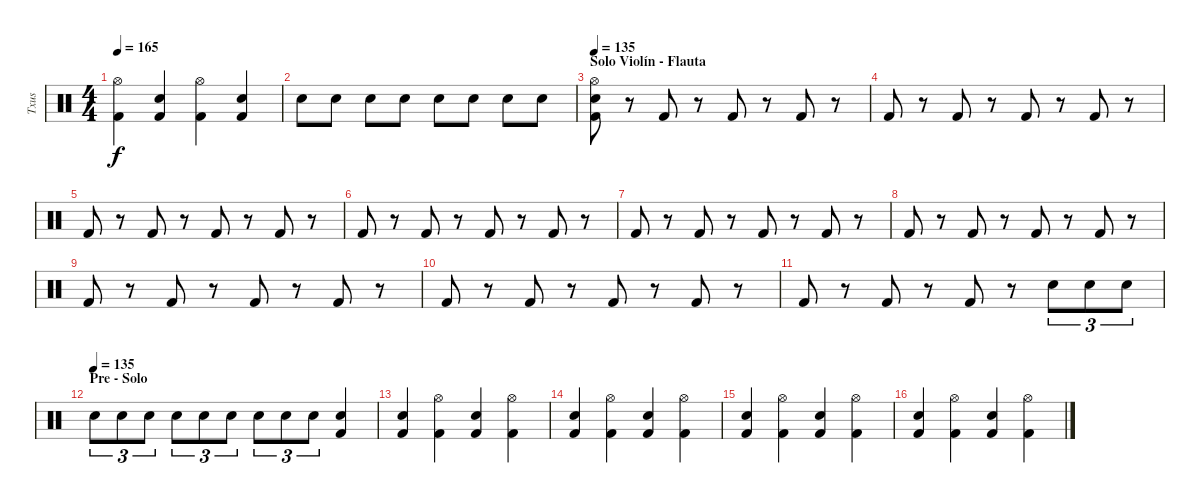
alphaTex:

\track ("Txus" "Txus") {instrument percussion}
\staff {score}
\articulation defaults
\ts (4 4)
\tempo 165
\clef neutral
\ks c
("Hi-Hat (open)" "Kick (hit) 2").4{dy f} ("Snare (hit) 2" "Kick (hit) 2").4 ("Hi-Hat (open)" "Kick (hit) 2").4 ("Snare (hit) 2" "Kick (hit) 2").4 |
"Snare (hit) 2".8 "Snare (hit) 2".8 "Snare (hit) 2".8 "Snare (hit) 2".8 "Snare (hit) 2".8 "Snare (hit) 2".8 "Snare (hit) 2".8 "Snare (hit) 2".8 |
\section ("" "Solo Violín - Flauta")
\tempo 135
("Snare (hit) 2" "Hi-Hat (open)" "Kick (hit) 2").8 r.8 "Kick (hit) 2".8 r.8 "Kick (hit) 2".8 r.8 "Kick (hit) 2".8 r.8 |
"Kick (hit) 2".8 r.8 "Kick (hit) 2".8 r.8 "Kick (hit) 2".8 r.8 "Kick (hit) 2".8 r.8 |
"Kick (hit) 2".8 r.8 "Kick (hit) 2".8 r.8 "Kick (hit) 2".8 r.8 "Kick (hit) 2".8 r.8 |
"Kick (hit) 2".8 r.8 "Kick (hit) 2".8 r.8 "Kick (hit) 2".8 r.8 "Kick (hit) 2".8 r.8 |
"Kick (hit) 2".8 r.8 "Kick (hit) 2".8 r.8 "Kick (hit) 2".8 r.8 "Kick (hit) 2".8 r.8 |
"Kick (hit) 2".8 r.8 "Kick (hit) 2".8 r.8 "Kick (hit) 2".8 r.8 "Kick (hit) 2".8 r.8 |
"Kick (hit) 2".8 r.8 "Kick (hit) 2".8 r.8 "Kick (hit) 2".8 r.8 "Kick (hit) 2".8 r.8 |
"Kick (hit) 2".8 r.8 "Kick (hit) 2".8 r.8 "Kick (hit) 2".8 r.8 "Kick (hit) 2".8 r.8 |
"Kick (hit) 2".8 r.8 "Kick (hit) 2".8 r.8 "Kick (hit) 2".8 r.8 "Snare (hit) 2".8{tu (3 2)} "Snare (hit) 2".8{tu (3 2)} "Snare (hit) 2".8{tu (3 2)} |
\section ("" "Pre - Solo")
\tempo (135)
"Snare (hit) 2".8{tu (3 2)} "Snare (hit) 2".8{tu (3 2)} "Snare (hit) 2".8{tu (3 2)} "Snare (hit) 2".8{tu (3 2)} "Snare (hit) 2".8{tu (3 2)} "Snare (hit) 2".8{tu (3 2)} "Snare (hit) 2".8{tu (3 2)} "Snare (hit) 2".8{tu (3 2)} "Snare (hit) 2".8{tu (3 2)} ("Snare (hit) 2" "Kick (hit) 2").4 |
("Snare (hit) 2" "Kick (hit) 2").4 ("Hi-Hat (open)" "Kick (hit) 2").4 ("Snare (hit) 2" "Kick (hit) 2").4 ("Hi-Hat (open)" "Kick (hit) 2").4 |
("Snare (hit) 2" "Kick (hit) 2").4 ("Hi-Hat (open)" "Kick (hit) 2").4 ("Snare (hit) 2" "Kick (hit) 2").4 ("Hi-Hat (open)" "Kick (hit) 2").4 |
("Snare (hit) 2" "Kick (hit) 2").4 ("Hi-Hat (open)" "Kick (hit) 2").4 ("Snare (hit) 2" "Kick (hit) 2").4 ("Hi-Hat (open)" "Kick (hit) 2").4 |
("Snare (hit) 2" "Kick (hit) 2").4 ("Hi-Hat (open)" "Kick (hit) 2").4 ("Snare (hit) 2" "Kick (hit) 2").4 ("Hi-Hat (open)" "Kick (hit) 2").4
